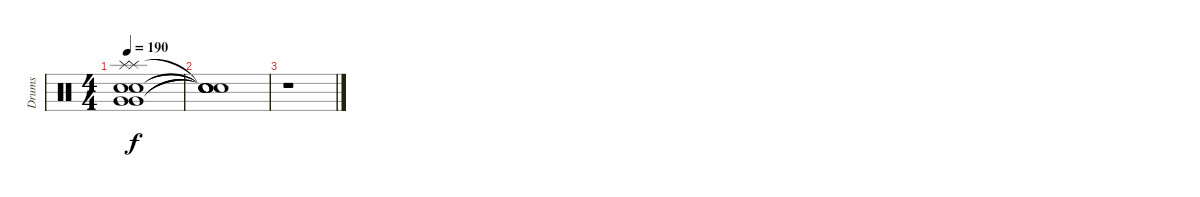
\track ("Drums" "Drums") {instrument percussion}
\staff {score}
\articulation defaults
\ts (4 4)
\tempo 190
\clef neutral
\ks c
("Snare (hit) 2" "Snare (hit) 2" "Very Low Tom (hit)" "Very Low Tom (hit)" "Splash (hit)" "Splash (hit)").1{dy f} |
("Snare (hit)"{t} "Snare (hit)"{t} "Snare (hit)"{t} "Snare (hit)"{t} "Snare (hit)"{t}).1 |
r.1
